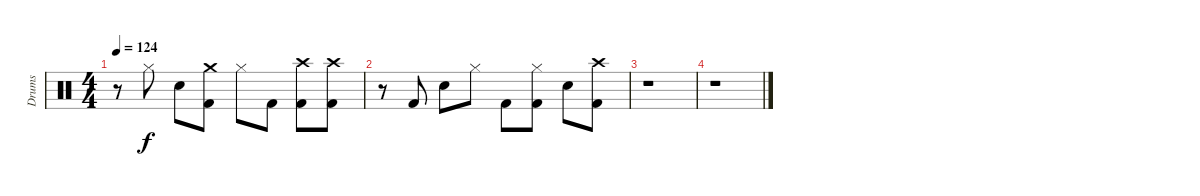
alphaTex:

\track ("Drums" "Drums") {instrument percussion}
\staff {score}
\articulation defaults
\ts (4 4)
\tempo 124
\clef neutral
\ks c
r.8{dy f} "Hi-Hat (closed)".8 "Snare (hit) 2".8 ("Kick (hit) 2" "Crash medium (hit)").8 "Hi-Hat (closed)".8 "Kick (hit) 2".8 ("Kick (hit) 2" "Crash high (hit)").8 ("Kick (hit) 2" "Crash high (hit)").8 |
r.8 "Kick (hit) 2".8 "Snare (hit) 2".8 "Hi-Hat (closed)".8 "Kick (hit) 2".8 ("Kick (hit) 2" "Hi-Hat (closed)").8 "Snare (hit) 2".8 ("Kick (hit) 2" "Crash high (hit)").8 |
r.1 |
r.1
